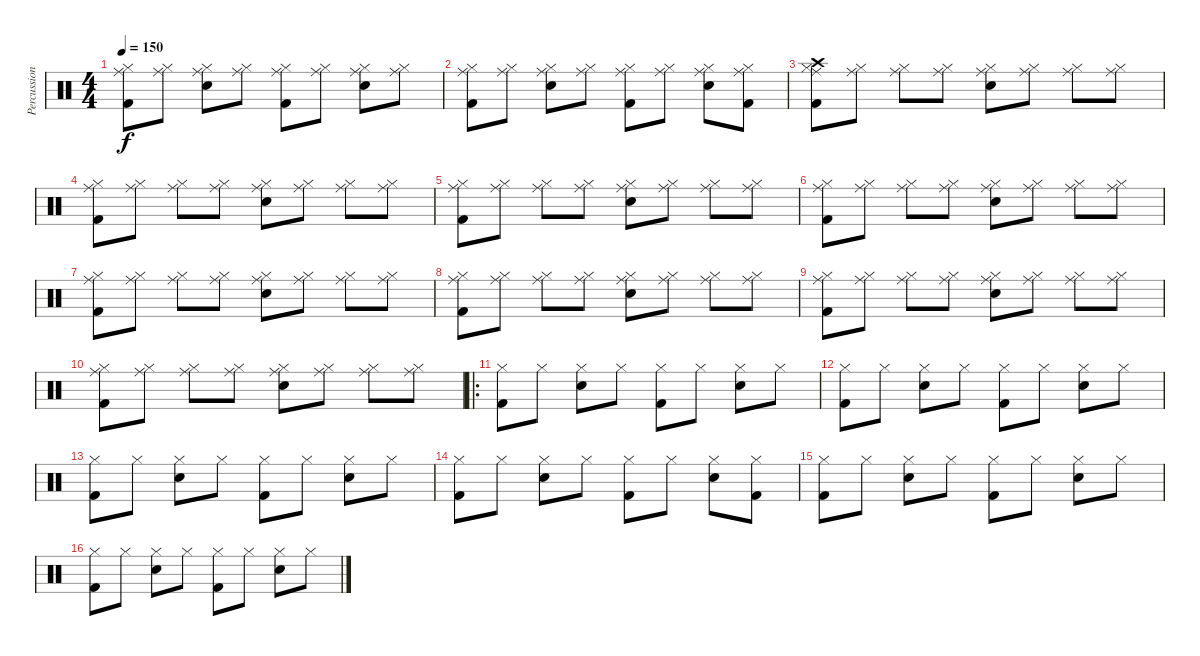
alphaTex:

\track ("Percussion" "Percussion") {instrument percussion}
\staff {score}
\articulation defaults
\ts (4 4)
\tempo 150
\clef neutral
\ks c
("Hi-Hat (closed)" "Ride (middle)" "Kick (hit) 2").8{dy f} ("Hi-Hat (closed)" "Ride (middle)").8 ("Hi-Hat (closed)" "Ride (middle)" "Electric Snare (hit)").8 ("Hi-Hat (closed)" "Ride (middle)").8 ("Hi-Hat (closed)" "Ride (middle)" "Kick (hit) 2").8 ("Hi-Hat (closed)" "Ride (middle)").8 ("Hi-Hat (closed)" "Ride (middle)" "Electric Snare (hit)").8 ("Hi-Hat (closed)" "Ride (middle)").8 |
("Hi-Hat (closed)" "Ride (middle)" "Kick (hit) 2").8 ("Hi-Hat (closed)" "Ride (middle)").8 ("Hi-Hat (closed)" "Ride (middle)" "Electric Snare (hit)").8 ("Hi-Hat (closed)" "Ride (middle)").8 ("Hi-Hat (closed)" "Ride (middle)" "Kick (hit) 2").8 ("Hi-Hat (closed)" "Ride (middle)").8 ("Hi-Hat (closed)" "Ride (middle)" "Electric Snare (hit)").8 ("Hi-Hat (closed)" "Ride (middle)" "Kick (hit) 2").8 |
("Hi-Hat (closed)" "Crash high (hit)" "Ride (middle)" "Kick (hit) 2").8 ("Hi-Hat (closed)" "Ride (middle)").8 ("Hi-Hat (closed)" "Ride (middle)").8 ("Hi-Hat (closed)" "Ride (middle)").8 ("Hi-Hat (closed)" "Ride (middle)" "Electric Snare (hit)").8 ("Hi-Hat (closed)" "Ride (middle)").8 ("Hi-Hat (closed)" "Ride (middle)").8 ("Hi-Hat (closed)" "Ride (middle)").8 |
("Hi-Hat (closed)" "Ride (middle)" "Kick (hit) 2").8 ("Hi-Hat (closed)" "Ride (middle)").8 ("Hi-Hat (closed)" "Ride (middle)").8 ("Hi-Hat (closed)" "Ride (middle)").8 ("Hi-Hat (closed)" "Ride (middle)" "Electric Snare (hit)").8 ("Hi-Hat (closed)" "Ride (middle)").8 ("Hi-Hat (closed)" "Ride (middle)").8 ("Hi-Hat (closed)" "Ride (middle)").8 |
("Hi-Hat (closed)" "Ride (middle)" "Kick (hit) 2").8 ("Hi-Hat (closed)" "Ride (middle)").8 ("Hi-Hat (closed)" "Ride (middle)").8 ("Hi-Hat (closed)" "Ride (middle)").8 ("Hi-Hat (closed)" "Ride (middle)" "Electric Snare (hit)").8 ("Hi-Hat (closed)" "Ride (middle)").8 ("Hi-Hat (closed)" "Ride (middle)").8 ("Hi-Hat (closed)" "Ride (middle)").8 |
("Hi-Hat (closed)" "Ride (middle)" "Kick (hit) 2").8 ("Hi-Hat (closed)" "Ride (middle)").8 ("Hi-Hat (closed)" "Ride (middle)").8 ("Hi-Hat (closed)" "Ride (middle)").8 ("Hi-Hat (closed)" "Ride (middle)" "Electric Snare (hit)").8 ("Hi-Hat (closed)" "Ride (middle)").8 ("Hi-Hat (closed)" "Ride (middle)").8 ("Hi-Hat (closed)" "Ride (middle)").8 |
("Hi-Hat (closed)" "Ride (middle)" "Kick (hit) 2").8 ("Hi-Hat (closed)" "Ride (middle)").8 ("Hi-Hat (closed)" "Ride (middle)").8 ("Hi-Hat (closed)" "Ride (middle)").8 ("Hi-Hat (closed)" "Ride (middle)" "Electric Snare (hit)").8 ("Hi-Hat (closed)" "Ride (middle)").8 ("Hi-Hat (closed)" "Ride (middle)").8 ("Hi-Hat (closed)" "Ride (middle)").8 |
("Hi-Hat (closed)" "Ride (middle)" "Kick (hit) 2").8 ("Hi-Hat (closed)" "Ride (middle)").8 ("Hi-Hat (closed)" "Ride (middle)").8 ("Hi-Hat (closed)" "Ride (middle)").8 ("Hi-Hat (closed)" "Ride (middle)" "Electric Snare (hit)").8 ("Hi-Hat (closed)" "Ride (middle)").8 ("Hi-Hat (closed)" "Ride (middle)").8 ("Hi-Hat (closed)" "Ride (middle)").8 |
("Hi-Hat (closed)" "Ride (middle)" "Kick (hit) 2").8 ("Hi-Hat (closed)" "Ride (middle)").8 ("Hi-Hat (closed)" "Ride (middle)").8 ("Hi-Hat (closed)" "Ride (middle)").8 ("Hi-Hat (closed)" "Ride (middle)" "Electric Snare (hit)").8 ("Hi-Hat (closed)" "Ride (middle)").8 ("Hi-Hat (closed)" "Ride (middle)").8 ("Hi-Hat (closed)" "Ride (middle)").8 |
("Hi-Hat (closed)" "Ride (middle)" "Kick (hit) 2").8 ("Hi-Hat (closed)" "Ride (middle)").8 ("Hi-Hat (closed)" "Ride (middle)").8 ("Hi-Hat (closed)" "Ride (middle)").8 ("Hi-Hat (closed)" "Ride (middle)" "Electric Snare (hit)").8 ("Hi-Hat (closed)" "Ride (middle)").8 ("Hi-Hat (closed)" "Ride (middle)").8 ("Hi-Hat (closed)" "Ride (middle)").8 |
\ro
("Hi-Hat (closed)" "Kick (hit) 2").8 "Hi-Hat (closed)".8 ("Hi-Hat (closed)" "Electric Snare (hit)").8 "Hi-Hat (closed)".8 ("Hi-Hat (closed)" "Kick (hit) 2").8 "Hi-Hat (closed)".8 ("Hi-Hat (closed)" "Electric Snare (hit)").8 "Hi-Hat (closed)".8 |
("Hi-Hat (closed)" "Kick (hit) 2").8 "Hi-Hat (closed)".8 ("Hi-Hat (closed)" "Electric Snare (hit)").8 "Hi-Hat (closed)".8 ("Hi-Hat (closed)" "Kick (hit) 2").8 "Hi-Hat (closed)".8 ("Hi-Hat (closed)" "Electric Snare (hit)").8 "Hi-Hat (closed)".8 |
("Hi-Hat (closed)" "Kick (hit) 2").8 "Hi-Hat (closed)".8 ("Hi-Hat (closed)" "Electric Snare (hit)").8 "Hi-Hat (closed)".8 ("Hi-Hat (closed)" "Kick (hit) 2").8 "Hi-Hat (closed)".8 ("Hi-Hat (closed)" "Electric Snare (hit)").8 "Hi-Hat (closed)".8 |
("Hi-Hat (closed)" "Kick (hit) 2").8 "Hi-Hat (closed)".8 ("Hi-Hat (closed)" "Electric Snare (hit)").8 "Hi-Hat (closed)".8 ("Hi-Hat (closed)" "Kick (hit) 2").8 "Hi-Hat (closed)".8 ("Hi-Hat (closed)" "Electric Snare (hit)").8 ("Hi-Hat (closed)" "Kick (hit) 2").8 |
("Hi-Hat (closed)" "Kick (hit) 2").8 "Hi-Hat (closed)".8 ("Hi-Hat (closed)" "Electric Snare (hit)").8 "Hi-Hat (closed)".8 ("Hi-Hat (closed)" "Kick (hit) 2").8 "Hi-Hat (closed)".8 ("Hi-Hat (closed)" "Electric Snare (hit)").8 "Hi-Hat (closed)".8 |
("Hi-Hat (closed)" "Kick (hit) 2").8 "Hi-Hat (closed)".8 ("Hi-Hat (closed)" "Electric Snare (hit)").8 "Hi-Hat (closed)".8 ("Hi-Hat (closed)" "Kick (hit) 2").8 "Hi-Hat (closed)".8 ("Hi-Hat (closed)" "Electric Snare (hit)").8 "Hi-Hat (closed)".8
